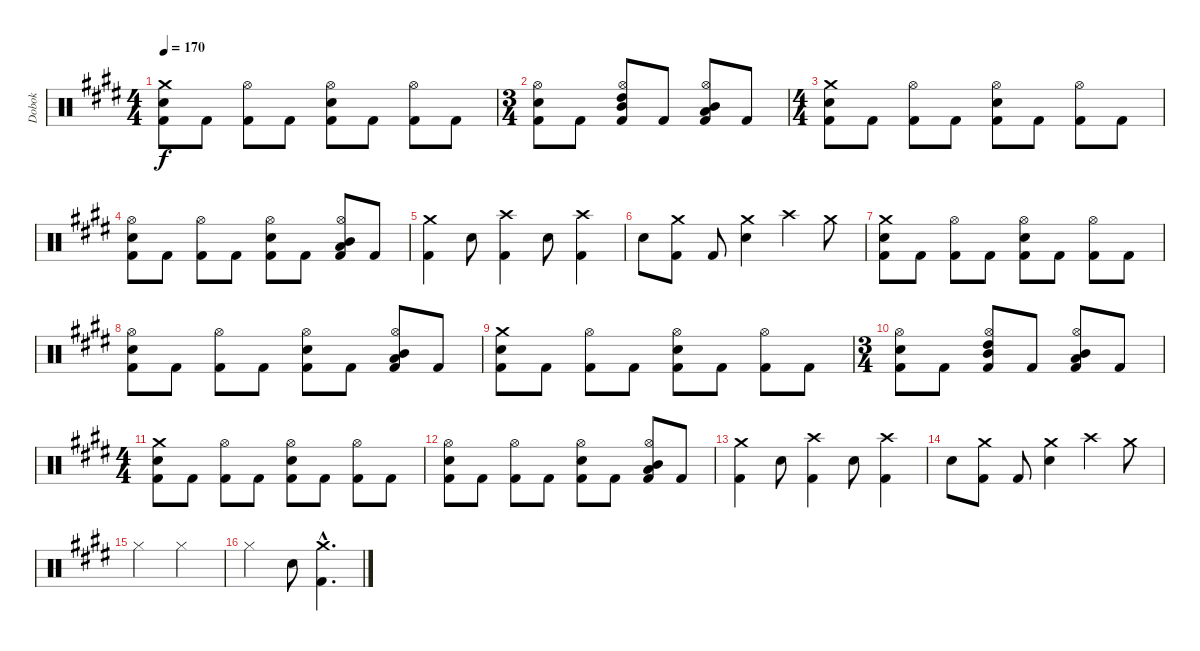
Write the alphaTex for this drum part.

\track ("Dobok" "Dobok") {instrument percussion}
\staff {score}
\articulation defaults
\ts (4 4)
\tempo 170
\clef neutral
\ks c#minor
("Crash medium (hit)" "Snare (hit) 2" "Kick (hit) 2").8{dy f} "Kick (hit) 2".8 ("Hi-Hat (open)" "Kick (hit) 2").8 "Kick (hit) 2".8 ("Hi-Hat (open)" "Snare (hit) 2" "Kick (hit) 2").8 "Kick (hit) 2".8 ("Hi-Hat (open)" "Kick (hit) 2").8 "Kick (hit) 2".8 |
\ts (3 4)
("Hi-Hat (open)" "Snare (hit) 2" "Kick (hit) 2").8 "Kick (hit) 2".8 ("Hi-Hat (open)" "High Tom (hit)" "Mid Tom (hit)" "Kick (hit) 2").8 "Kick (hit) 2".8 ("Hi-Hat (open)" "Mid Tom (hit)" "Low Tom (hit)" "Kick (hit) 2").8 "Kick (hit) 2".8 |
\ts (4 4)
("Crash medium (hit)" "Snare (hit) 2" "Kick (hit) 2").8 "Kick (hit) 2".8 ("Hi-Hat (open)" "Kick (hit) 2").8 "Kick (hit) 2".8 ("Hi-Hat (open)" "Snare (hit) 2" "Kick (hit) 2").8 "Kick (hit) 2".8 ("Hi-Hat (open)" "Kick (hit) 2").8 "Kick (hit) 2".8 |
("Hi-Hat (open)" "Snare (hit) 2" "Kick (hit) 2").8 "Kick (hit) 2".8 ("Hi-Hat (open)" "Kick (hit) 2").8 "Kick (hit) 2".8 ("Hi-Hat (open)" "Snare (hit) 2" "Kick (hit) 2").8 "Kick (hit) 2".8 ("Hi-Hat (open)" "Low Tom (hit)" "Mid Tom (hit)" "Kick (hit) 2").8 "Kick (hit) 2".8 |
("Crash medium (hit)" "Kick (hit) 2").4 "Snare (hit) 2".8 ("Crash high (hit)" "Kick (hit) 2").4 "Snare (hit) 2".8 ("Crash high (hit)" "Kick (hit) 2").4 |
"Snare (hit) 2".8 ("Crash medium (hit)" "Kick (hit) 2").8 "Kick (hit) 2".8 ("Crash medium (hit)" "Snare (hit) 2").4 "Crash high (hit)".4 "Crash medium (hit)".8 |
("Crash medium (hit)" "Snare (hit) 2" "Kick (hit) 2").8 "Kick (hit) 2".8 ("Hi-Hat (open)" "Kick (hit) 2").8 "Kick (hit) 2".8 ("Hi-Hat (open)" "Snare (hit) 2" "Kick (hit) 2").8 "Kick (hit) 2".8 ("Hi-Hat (open)" "Kick (hit) 2").8 "Kick (hit) 2".8 |
("Hi-Hat (open)" "Snare (hit) 2" "Kick (hit) 2").8 "Kick (hit) 2".8 ("Hi-Hat (open)" "Kick (hit) 2").8 "Kick (hit) 2".8 ("Hi-Hat (open)" "Snare (hit) 2" "Kick (hit) 2").8 "Kick (hit) 2".8 ("Hi-Hat (open)" "Low Tom (hit)" "Mid Tom (hit)" "Kick (hit) 2").8 "Kick (hit) 2".8 |
("Crash medium (hit)" "Snare (hit) 2" "Kick (hit) 2").8 "Kick (hit) 2".8 ("Hi-Hat (open)" "Kick (hit) 2").8 "Kick (hit) 2".8 ("Hi-Hat (open)" "Snare (hit) 2" "Kick (hit) 2").8 "Kick (hit) 2".8 ("Hi-Hat (open)" "Kick (hit) 2").8 "Kick (hit) 2".8 |
\ts (3 4)
("Hi-Hat (open)" "Snare (hit) 2" "Kick (hit) 2").8 "Kick (hit) 2".8 ("Hi-Hat (open)" "High Tom (hit)" "Mid Tom (hit)" "Kick (hit) 2").8 "Kick (hit) 2".8 ("Hi-Hat (open)" "Mid Tom (hit)" "Low Tom (hit)" "Kick (hit) 2").8 "Kick (hit) 2".8 |
\ts (4 4)
("Crash medium (hit)" "Snare (hit) 2" "Kick (hit) 2").8 "Kick (hit) 2".8 ("Hi-Hat (open)" "Kick (hit) 2").8 "Kick (hit) 2".8 ("Hi-Hat (open)" "Snare (hit) 2" "Kick (hit) 2").8 "Kick (hit) 2".8 ("Hi-Hat (open)" "Kick (hit) 2").8 "Kick (hit) 2".8 |
("Hi-Hat (open)" "Snare (hit) 2" "Kick (hit) 2").8 "Kick (hit) 2".8 ("Hi-Hat (open)" "Kick (hit) 2").8 "Kick (hit) 2".8 ("Hi-Hat (open)" "Snare (hit) 2" "Kick (hit) 2").8 "Kick (hit) 2".8 ("Hi-Hat (open)" "Low Tom (hit)" "Mid Tom (hit)" "Kick (hit) 2").8 "Kick (hit) 2".8 |
("Crash medium (hit)" "Kick (hit) 2").4 "Snare (hit) 2".8 ("Crash high (hit)" "Kick (hit) 2").4 "Snare (hit) 2".8 ("Crash high (hit)" "Kick (hit) 2").4 |
"Snare (hit) 2".8 ("Crash medium (hit)" "Kick (hit) 2").8 "Kick (hit) 2".8 ("Crash medium (hit)" "Snare (hit) 2").4 "Crash high (hit)".4 "Crash medium (hit)".8 |
"Hi-Hat (closed)".2 "Hi-Hat (closed)".2 |
"Hi-Hat (closed)".2 "Snare (hit) 2".8 ("Crash medium (hit)"{hac} "Kick (hit) 2"{hac}).4{d}
